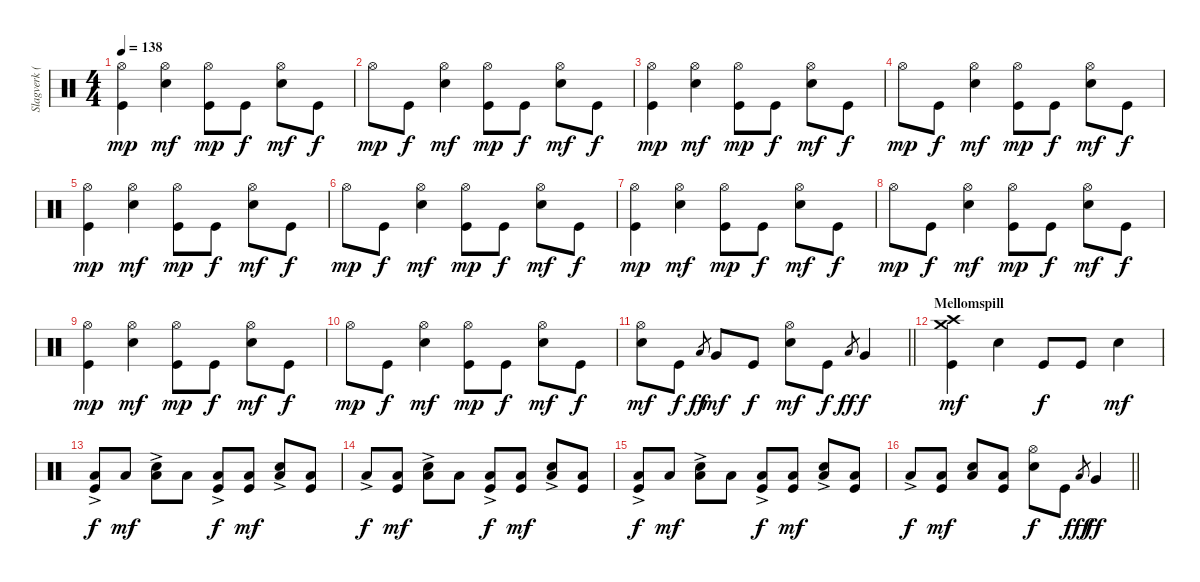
\track ("Slagverk (Jan Kristiansen)" "Slagverk (") {instrument percussion}
\staff {score}
\articulation defaults
\ts (4 4)
\tempo 138
\clef neutral
\ks c
("Hi-Hat (open)" "Kick (hit)").4{dy mp} ("Hi-Hat (open)" "Snare (hit) 2").4{dy mf} ("Hi-Hat (open)" "Kick (hit)").8{dy mp} "Kick (hit)".8{dy f} ("Hi-Hat (open)" "Snare (hit) 2").8{dy mf} "Kick (hit)".8{dy f} |
"Hi-Hat (open)".8{dy mp} "Kick (hit)".8{dy f} ("Hi-Hat (open)" "Snare (hit) 2").4{dy mf} ("Hi-Hat (open)" "Kick (hit)").8{dy mp} "Kick (hit)".8{dy f} ("Hi-Hat (open)" "Snare (hit) 2").8{dy mf} "Kick (hit)".8{dy f} |
("Hi-Hat (open)" "Kick (hit)").4{dy mp} ("Hi-Hat (open)" "Snare (hit) 2").4{dy mf} ("Hi-Hat (open)" "Kick (hit)").8{dy mp} "Kick (hit)".8{dy f} ("Hi-Hat (open)" "Snare (hit) 2").8{dy mf} "Kick (hit)".8{dy f} |
"Hi-Hat (open)".8{dy mp} "Kick (hit)".8{dy f} ("Hi-Hat (open)" "Snare (hit) 2").4{dy mf} ("Hi-Hat (open)" "Kick (hit)").8{dy mp} "Kick (hit)".8{dy f} ("Hi-Hat (open)" "Snare (hit) 2").8{dy mf} "Kick (hit)".8{dy f} |
("Hi-Hat (open)" "Kick (hit)").4{dy mp} ("Hi-Hat (open)" "Snare (hit) 2").4{dy mf} ("Hi-Hat (open)" "Kick (hit)").8{dy mp} "Kick (hit)".8{dy f} ("Hi-Hat (open)" "Snare (hit) 2").8{dy mf} "Kick (hit)".8{dy f} |
"Hi-Hat (open)".8{dy mp} "Kick (hit)".8{dy f} ("Hi-Hat (open)" "Snare (hit) 2").4{dy mf} ("Hi-Hat (open)" "Kick (hit)").8{dy mp} "Kick (hit)".8{dy f} ("Hi-Hat (open)" "Snare (hit) 2").8{dy mf} "Kick (hit)".8{dy f} |
("Hi-Hat (open)" "Kick (hit)").4{dy mp} ("Hi-Hat (open)" "Snare (hit) 2").4{dy mf} ("Hi-Hat (open)" "Kick (hit)").8{dy mp} "Kick (hit)".8{dy f} ("Hi-Hat (open)" "Snare (hit) 2").8{dy mf} "Kick (hit)".8{dy f} |
"Hi-Hat (open)".8{dy mp} "Kick (hit)".8{dy f} ("Hi-Hat (open)" "Snare (hit) 2").4{dy mf} ("Hi-Hat (open)" "Kick (hit)").8{dy mp} "Kick (hit)".8{dy f} ("Hi-Hat (open)" "Snare (hit) 2").8{dy mf} "Kick (hit)".8{dy f} |
("Hi-Hat (open)" "Kick (hit)").4{dy mp} ("Hi-Hat (open)" "Snare (hit) 2").4{dy mf} ("Hi-Hat (open)" "Kick (hit)").8{dy mp} "Kick (hit)".8{dy f} ("Hi-Hat (open)" "Snare (hit) 2").8{dy mf} "Kick (hit)".8{dy f} |
"Hi-Hat (open)".8{dy mp} "Kick (hit)".8{dy f} ("Hi-Hat (open)" "Snare (hit) 2").4{dy mf} ("Hi-Hat (open)" "Kick (hit)").8{dy mp} "Kick (hit)".8{dy f} ("Hi-Hat (open)" "Snare (hit) 2").8{dy mf} "Kick (hit)".8{dy f} |
\barLineRight lightlight
("Hi-Hat (open)" "Snare (hit) 2").8{dy mf} "Kick (hit)".8{dy f} "Low Tom (hit)".8{gr dy ff} "Very Low Tom (hit)".8{dy mf} "Kick (hit)".8{dy f} ("Hi-Hat (open)" "Snare (hit) 2").8{dy mf} "Kick (hit)".8{dy f} "Low Tom (hit)".8{gr dy ff} "Very Low Tom (hit)".4{dy f} |
\section ("" "Mellomspill")
("Crash high (hit)" "Crash medium (hit)" "Kick (hit)").4{dy mf} "Snare (hit) 2".4 "Kick (hit)".8{dy f} "Kick (hit)".8 "Snare (hit) 2".4{dy mf} |
("Low Floor Tom (hit)"{ac} "Kick (hit)").8{dy f} "Low Floor Tom (hit)".8{dy mf} ("Low Floor Tom (hit)"{ac} "Snare (hit) 2").8 "Low Floor Tom (hit)".8 ("Low Floor Tom (hit)"{ac} "Kick (hit)").8{dy f} ("Low Floor Tom (hit)" "Kick (hit)").8{dy mf} ("Low Floor Tom (hit)"{ac} "Snare (hit) 2").8 ("Low Floor Tom (hit)" "Kick (hit)").8 |
"Low Floor Tom (hit)"{ac}.8{dy f} ("Low Floor Tom (hit)" "Kick (hit)").8{dy mf} ("Low Floor Tom (hit)"{ac} "Snare (hit) 2").8 "Low Floor Tom (hit)".8 ("Low Floor Tom (hit)"{ac} "Kick (hit)").8{dy f} ("Low Floor Tom (hit)" "Kick (hit)").8{dy mf} ("Low Floor Tom (hit)"{ac} "Snare (hit) 2").8 ("Low Floor Tom (hit)" "Kick (hit)").8 |
("Low Floor Tom (hit)"{ac} "Kick (hit)").8{dy f} "Low Floor Tom (hit)".8{dy mf} ("Low Floor Tom (hit)"{ac} "Snare (hit) 2").8 "Low Floor Tom (hit)".8 ("Low Floor Tom (hit)"{ac} "Kick (hit)").8{dy f} ("Low Floor Tom (hit)" "Kick (hit)").8{dy mf} ("Low Floor Tom (hit)"{ac} "Snare (hit) 2").8 ("Low Floor Tom (hit)" "Kick (hit)").8 |
\barLineRight lightlight "Low Floor Tom (hit)"{ac}.8{dy f}
("Low Floor Tom (hit)" "Kick (hit)").8{dy mf} ("Low Floor Tom (hit)" "Snare (hit) 2").8 ("Low Floor Tom (hit)" "Kick (hit)").8 ("Hi-Hat (open)" "Snare (hit) 2").8{dy f} "Kick (hit)".8 "Low Tom (hit)".8{gr dy fff} "Very Low Tom (hit)".4{dy ff}
